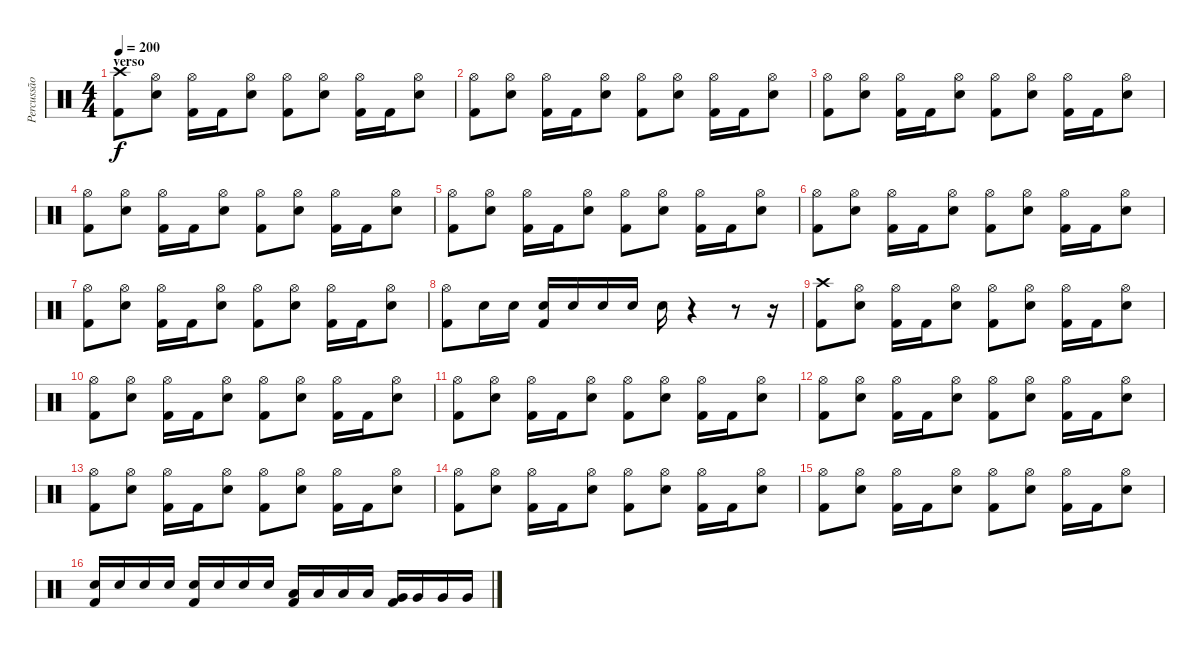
\track ("Percussão" "Percussão") {instrument percussion}
\staff {score}
\articulation defaults
\ts (4 4)
\section ("" "verso")
\tempo 200
\clef neutral
\ks c
("Crash high (hit)" "Kick (hit) 2").8{dy f} ("Hi-Hat (open)" "Snare (hit) 2").8 ("Hi-Hat (open)" "Kick (hit) 2").16 "Kick (hit) 2".16 ("Hi-Hat (open)" "Snare (hit) 2").8 ("Hi-Hat (open)" "Kick (hit) 2").8 ("Hi-Hat (open)" "Snare (hit) 2").8 ("Hi-Hat (open)" "Kick (hit) 2").16 "Kick (hit) 2".16 ("Hi-Hat (open)" "Snare (hit) 2").8 |
("Hi-Hat (open)" "Kick (hit) 2").8 ("Hi-Hat (open)" "Snare (hit) 2").8 ("Hi-Hat (open)" "Kick (hit) 2").16 "Kick (hit) 2".16 ("Hi-Hat (open)" "Snare (hit) 2").8 ("Hi-Hat (open)" "Kick (hit) 2").8 ("Hi-Hat (open)" "Snare (hit) 2").8 ("Hi-Hat (open)" "Kick (hit) 2").16 "Kick (hit) 2".16 ("Hi-Hat (open)" "Snare (hit) 2").8 |
("Hi-Hat (open)" "Kick (hit) 2").8 ("Hi-Hat (open)" "Snare (hit) 2").8 ("Hi-Hat (open)" "Kick (hit) 2").16 "Kick (hit) 2".16 ("Hi-Hat (open)" "Snare (hit) 2").8 ("Hi-Hat (open)" "Kick (hit) 2").8 ("Hi-Hat (open)" "Snare (hit) 2").8 ("Hi-Hat (open)" "Kick (hit) 2").16 "Kick (hit) 2".16 ("Hi-Hat (open)" "Snare (hit) 2").8 |
("Hi-Hat (open)" "Kick (hit) 2").8 ("Hi-Hat (open)" "Snare (hit) 2").8 ("Hi-Hat (open)" "Kick (hit) 2").16 "Kick (hit) 2".16 ("Hi-Hat (open)" "Snare (hit) 2").8 ("Hi-Hat (open)" "Kick (hit) 2").8 ("Hi-Hat (open)" "Snare (hit) 2").8 ("Hi-Hat (open)" "Kick (hit) 2").16 "Kick (hit) 2".16 ("Hi-Hat (open)" "Snare (hit) 2").8 |
("Hi-Hat (open)" "Kick (hit) 2").8 ("Hi-Hat (open)" "Snare (hit) 2").8 ("Hi-Hat (open)" "Kick (hit) 2").16 "Kick (hit) 2".16 ("Hi-Hat (open)" "Snare (hit) 2").8 ("Hi-Hat (open)" "Kick (hit) 2").8 ("Hi-Hat (open)" "Snare (hit) 2").8 ("Hi-Hat (open)" "Kick (hit) 2").16 "Kick (hit) 2".16 ("Hi-Hat (open)" "Snare (hit) 2").8 |
("Hi-Hat (open)" "Kick (hit) 2").8 ("Hi-Hat (open)" "Snare (hit) 2").8 ("Hi-Hat (open)" "Kick (hit) 2").16 "Kick (hit) 2".16 ("Hi-Hat (open)" "Snare (hit) 2").8 ("Hi-Hat (open)" "Kick (hit) 2").8 ("Hi-Hat (open)" "Snare (hit) 2").8 ("Hi-Hat (open)" "Kick (hit) 2").16 "Kick (hit) 2".16 ("Hi-Hat (open)" "Snare (hit) 2").8 |
("Hi-Hat (open)" "Kick (hit) 2").8 ("Hi-Hat (open)" "Snare (hit) 2").8 ("Hi-Hat (open)" "Kick (hit) 2").16 "Kick (hit) 2".16 ("Hi-Hat (open)" "Snare (hit) 2").8 ("Hi-Hat (open)" "Kick (hit) 2").8 ("Hi-Hat (open)" "Snare (hit) 2").8 ("Hi-Hat (open)" "Kick (hit) 2").16 "Kick (hit) 2".16 ("Hi-Hat (open)" "Snare (hit) 2").8 |
("Hi-Hat (open)" "Kick (hit) 2").8 "Snare (hit) 2".16 "Snare (hit) 2".16 ("Snare (hit) 2" "Kick (hit) 2").16 "Snare (hit) 2".16 "Snare (hit) 2".16 "Snare (hit) 2".16 "Snare (hit) 2".16 r.4 r.8 r.16 |
("Crash high (hit)" "Kick (hit) 2").8 ("Hi-Hat (open)" "Snare (hit) 2").8 ("Hi-Hat (open)" "Kick (hit) 2").16 "Kick (hit) 2".16 ("Hi-Hat (open)" "Snare (hit) 2").8 ("Hi-Hat (open)" "Kick (hit) 2").8 ("Hi-Hat (open)" "Snare (hit) 2").8 ("Hi-Hat (open)" "Kick (hit) 2").16 "Kick (hit) 2".16 ("Hi-Hat (open)" "Snare (hit) 2").8 |
("Hi-Hat (open)" "Kick (hit) 2").8 ("Hi-Hat (open)" "Snare (hit) 2").8 ("Hi-Hat (open)" "Kick (hit) 2").16 "Kick (hit) 2".16 ("Hi-Hat (open)" "Snare (hit) 2").8 ("Hi-Hat (open)" "Kick (hit) 2").8 ("Hi-Hat (open)" "Snare (hit) 2").8 ("Hi-Hat (open)" "Kick (hit) 2").16 "Kick (hit) 2".16 ("Hi-Hat (open)" "Snare (hit) 2").8 |
("Hi-Hat (open)" "Kick (hit) 2").8 ("Hi-Hat (open)" "Snare (hit) 2").8 ("Hi-Hat (open)" "Kick (hit) 2").16 "Kick (hit) 2".16 ("Hi-Hat (open)" "Snare (hit) 2").8 ("Hi-Hat (open)" "Kick (hit) 2").8 ("Hi-Hat (open)" "Snare (hit) 2").8 ("Hi-Hat (open)" "Kick (hit) 2").16 "Kick (hit) 2".16 ("Hi-Hat (open)" "Snare (hit) 2").8 |
("Hi-Hat (open)" "Kick (hit) 2").8 ("Hi-Hat (open)" "Snare (hit) 2").8 ("Hi-Hat (open)" "Kick (hit) 2").16 "Kick (hit) 2".16 ("Hi-Hat (open)" "Snare (hit) 2").8 ("Hi-Hat (open)" "Kick (hit) 2").8 ("Hi-Hat (open)" "Snare (hit) 2").8 ("Hi-Hat (open)" "Kick (hit) 2").16 "Kick (hit) 2".16 ("Hi-Hat (open)" "Snare (hit) 2").8 |
("Hi-Hat (open)" "Kick (hit) 2").8 ("Hi-Hat (open)" "Snare (hit) 2").8 ("Hi-Hat (open)" "Kick (hit) 2").16 "Kick (hit) 2".16 ("Hi-Hat (open)" "Snare (hit) 2").8 ("Hi-Hat (open)" "Kick (hit) 2").8 ("Hi-Hat (open)" "Snare (hit) 2").8 ("Hi-Hat (open)" "Kick (hit) 2").16 "Kick (hit) 2".16 ("Hi-Hat (open)" "Snare (hit) 2").8 |
("Hi-Hat (open)" "Kick (hit) 2").8 ("Hi-Hat (open)" "Snare (hit) 2").8 ("Hi-Hat (open)" "Kick (hit) 2").16 "Kick (hit) 2".16 ("Hi-Hat (open)" "Snare (hit) 2").8 ("Hi-Hat (open)" "Kick (hit) 2").8 ("Hi-Hat (open)" "Snare (hit) 2").8 ("Hi-Hat (open)" "Kick (hit) 2").16 "Kick (hit) 2".16 ("Hi-Hat (open)" "Snare (hit) 2").8 |
("Hi-Hat (open)" "Kick (hit) 2").8 ("Hi-Hat (open)" "Snare (hit) 2").8 ("Hi-Hat (open)" "Kick (hit) 2").16 "Kick (hit) 2".16 ("Hi-Hat (open)" "Snare (hit) 2").8 ("Hi-Hat (open)" "Kick (hit) 2").8 ("Hi-Hat (open)" "Snare (hit) 2").8 ("Hi-Hat (open)" "Kick (hit) 2").16 "Kick (hit) 2".16 ("Hi-Hat (open)" "Snare (hit) 2").8 |
("Snare (hit) 2" "Kick (hit) 2").16 "Snare (hit) 2".16 "Snare (hit) 2".16 "Snare (hit) 2".16 ("Snare (hit) 2" "Kick (hit) 2").16 "Snare (hit) 2".16 "Snare (hit) 2".16 "Snare (hit) 2".16 ("Low Tom (hit)" "Kick (hit) 2").16 "Low Tom (hit)".16 "Low Tom (hit)".16 "Low Tom (hit)".16 ("Very Low Tom (hit)" "Kick (hit) 2").16 "Very Low Tom (hit)".16 "Very Low Tom (hit)".16 "Very Low Tom (hit)".16
